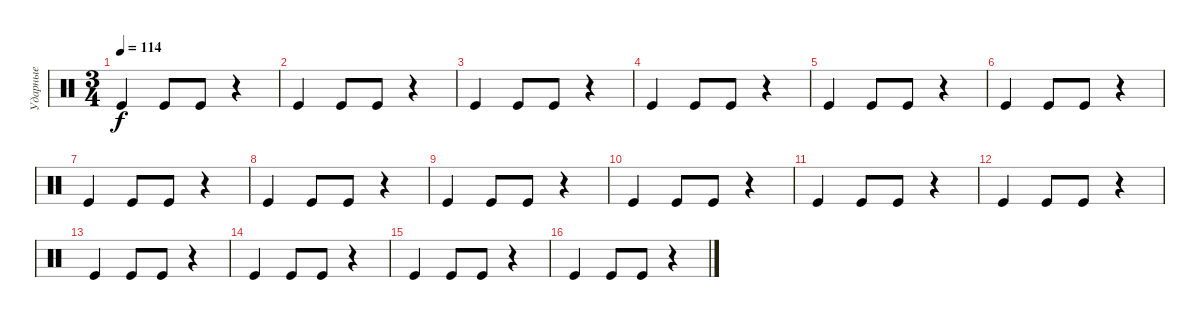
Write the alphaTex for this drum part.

\track ("Ударные" "Ударные") {instrument percussion}
\staff {score}
\articulation defaults
\ts (3 4)
\tempo 114
\clef neutral
\ks c "Kick (hit)".4{dy f} "Kick (hit)".8 "Kick (hit)".8
r.4 |
"Kick (hit)".4 "Kick (hit)".8 "Kick (hit)".8 r.4 |
"Kick (hit)".4 "Kick (hit)".8 "Kick (hit)".8 r.4 |
"Kick (hit)".4 "Kick (hit)".8 "Kick (hit)".8 r.4 |
"Kick (hit)".4 "Kick (hit)".8 "Kick (hit)".8 r.4 |
"Kick (hit)".4 "Kick (hit)".8 "Kick (hit)".8 r.4 |
"Kick (hit)".4 "Kick (hit)".8 "Kick (hit)".8 r.4 |
"Kick (hit)".4 "Kick (hit)".8 "Kick (hit)".8 r.4 |
"Kick (hit)".4 "Kick (hit)".8 "Kick (hit)".8 r.4 |
"Kick (hit)".4{volume 7} "Kick (hit)".8 "Kick (hit)".8 r.4 |
"Kick (hit)".4 "Kick (hit)".8 "Kick (hit)".8 r.4 |
"Kick (hit)".4 "Kick (hit)".8 "Kick (hit)".8 r.4 |
"Kick (hit)".4 "Kick (hit)".8 "Kick (hit)".8 r.4 |
"Kick (hit)".4 "Kick (hit)".8 "Kick (hit)".8 r.4 |
"Kick (hit)".4 "Kick (hit)".8 "Kick (hit)".8 r.4 |
"Kick (hit)".4 "Kick (hit)".8 "Kick (hit)".8 r.4
